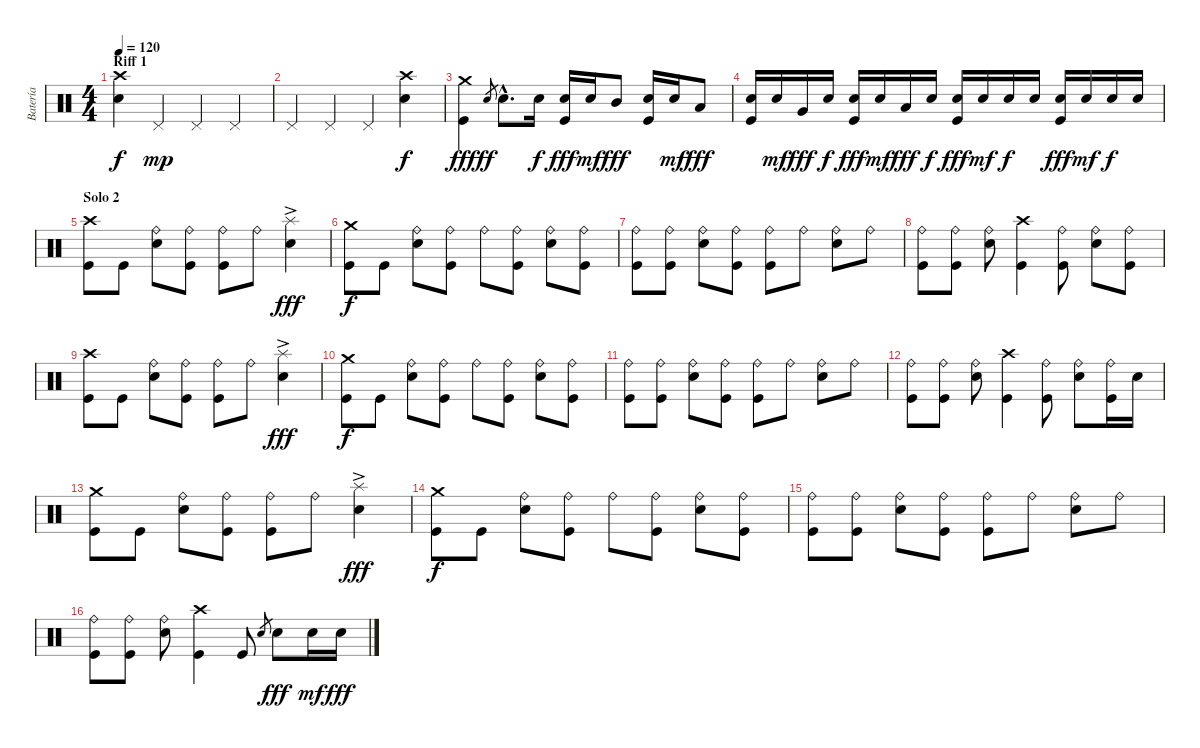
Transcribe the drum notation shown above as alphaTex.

\track ("Batería" "Batería") {instrument percussion}
\staff {score}
\articulation defaults
\ts (4 4)
\section ("" "Riff 1")
\tempo 120
\clef neutral
\ks c
("Electric Snare (hit)" "Crash high (hit)").4{dy f} "Pedal Hi-Hat (hit)".4{dy mp} "Pedal Hi-Hat (hit)".4 "Pedal Hi-Hat (hit)".4 |
"Pedal Hi-Hat (hit)".4 "Pedal Hi-Hat (hit)".4 "Pedal Hi-Hat (hit)".4 ("Electric Snare (hit)" "Crash high (hit)").4{dy f} |
("Kick (hit)" "Crash medium (hit)").4{dy fff} "Electric Snare (hit)".8{gr dy ff} "Electric Snare (hit)"{hac}.8{d} "Electric Snare (hit)".16{dy f} ("Kick (hit)" "Electric Snare (hit)").16{dy fff} "Electric Snare (hit)".16{dy mf} "Mid Tom (hit)".8{dy fff} ("Kick (hit)" "Electric Snare (hit)").16 "Electric Snare (hit)".16{dy mf} "Low Tom (hit)".8{dy fff} |
("Kick (hit)" "Electric Snare (hit)").16 "Electric Snare (hit)".16{dy mf} "Very Low Tom (hit)".16{dy fff} "Electric Snare (hit)".16{dy f} ("Kick (hit)" "Electric Snare (hit)").16{dy fff} "Electric Snare (hit)".16{dy mf} "Low Tom (hit)".16{dy fff} "Electric Snare (hit)".16{dy f} ("Kick (hit)" "Electric Snare (hit)").16{dy fff} "Electric Snare (hit)".16{dy mf} "Electric Snare (hit)".16{dy f} "Electric Snare (hit)".16 ("Kick (hit)" "Electric Snare (hit)").16{dy fff} "Electric Snare (hit)".16{dy mf} "Electric Snare (hit)".16{dy f} "Electric Snare (hit)".16 |
\section ("" "Solo 2")
("Kick (hit)" "Crash high (hit)").8 "Kick (hit)".8 ("Electric Snare (hit)" "Ride (bell)").8 ("Kick (hit)" "Ride (bell)").8 ("Kick (hit)" "Ride (bell)").8 "Ride (bell)".8 ("Electric Snare (hit)" "Splash (hit)"{ac}).4{dy fff} |
("Kick (hit)" "Crash medium (hit)").8{dy f} "Kick (hit)".8 ("Electric Snare (hit)" "Ride (bell)").8 ("Kick (hit)" "Ride (bell)").8 "Ride (bell)".8 ("Kick (hit)" "Ride (bell)").8 ("Electric Snare (hit)" "Ride (bell)").8 ("Kick (hit)" "Ride (bell)").8 |
("Kick (hit)" "Ride (bell)").8 ("Kick (hit)" "Ride (bell)").8 ("Electric Snare (hit)" "Ride (bell)").8 ("Kick (hit)" "Ride (bell)").8 ("Kick (hit)" "Ride (bell)").8 "Ride (bell)".8 ("Electric Snare (hit)" "Ride (bell)").8 "Ride (bell)".8 |
("Kick (hit)" "Ride (bell)").8 ("Kick (hit)" "Ride (bell)").8 ("Electric Snare (hit)" "Ride (bell)").8 ("Kick (hit)" "Crash high (hit)").4 ("Kick (hit)" "Ride (bell)").8 ("Electric Snare (hit)" "Ride (bell)").8 ("Kick (hit)" "Ride (bell)").8 |
("Kick (hit)" "Crash high (hit)").8 "Kick (hit)".8 ("Electric Snare (hit)" "Ride (bell)").8 ("Kick (hit)" "Ride (bell)").8 ("Kick (hit)" "Ride (bell)").8 "Ride (bell)".8 ("Electric Snare (hit)" "Splash (hit)"{ac}).4{dy fff} |
("Kick (hit)" "Crash medium (hit)").8{dy f} "Kick (hit)".8 ("Electric Snare (hit)" "Ride (bell)").8 ("Kick (hit)" "Ride (bell)").8 "Ride (bell)".8 ("Kick (hit)" "Ride (bell)").8 ("Electric Snare (hit)" "Ride (bell)").8 ("Kick (hit)" "Ride (bell)").8 |
("Kick (hit)" "Ride (bell)").8 ("Kick (hit)" "Ride (bell)").8 ("Electric Snare (hit)" "Ride (bell)").8 ("Kick (hit)" "Ride (bell)").8 ("Kick (hit)" "Ride (bell)").8 "Ride (bell)".8 ("Electric Snare (hit)" "Ride (bell)").8 "Ride (bell)".8 |
("Kick (hit)" "Ride (bell)").8 ("Kick (hit)" "Ride (bell)").8 ("Electric Snare (hit)" "Ride (bell)").8 ("Kick (hit)" "Crash high (hit)").4 ("Kick (hit)" "Ride (bell)").8 ("Electric Snare (hit)" "Ride (bell)").8 ("Kick (hit)" "Ride (bell)").16 "Electric Snare (hit)".16 |
("Kick (hit)" "Crash medium (hit)").8 "Kick (hit)".8 ("Electric Snare (hit)" "Ride (bell)").8 ("Kick (hit)" "Ride (bell)").8 ("Kick (hit)" "Ride (bell)").8 "Ride (bell)".8 ("Electric Snare (hit)" "Splash (hit)"{ac}).4{dy fff} |
("Kick (hit)" "Crash medium (hit)").8{dy f} "Kick (hit)".8 ("Electric Snare (hit)" "Ride (bell)").8 ("Kick (hit)" "Ride (bell)").8 "Ride (bell)".8 ("Kick (hit)" "Ride (bell)").8 ("Electric Snare (hit)" "Ride (bell)").8 ("Kick (hit)" "Ride (bell)").8 |
("Kick (hit)" "Ride (bell)").8 ("Kick (hit)" "Ride (bell)").8 ("Electric Snare (hit)" "Ride (bell)").8 ("Kick (hit)" "Ride (bell)").8 ("Kick (hit)" "Ride (bell)").8 "Ride (bell)".8 ("Electric Snare (hit)" "Ride (bell)").8 "Ride (bell)".8 |
("Kick (hit)" "Ride (bell)").8 ("Kick (hit)" "Ride (bell)").8 ("Electric Snare (hit)" "Ride (bell)").8 ("Kick (hit)" "Crash high (hit)").4 "Kick (hit)".8 "Electric Snare (hit)".8{gr} "Electric Snare (hit)".8{dy fff} "Electric Snare (hit)".16{dy mf} "Electric Snare (hit)".16{dy fff}
